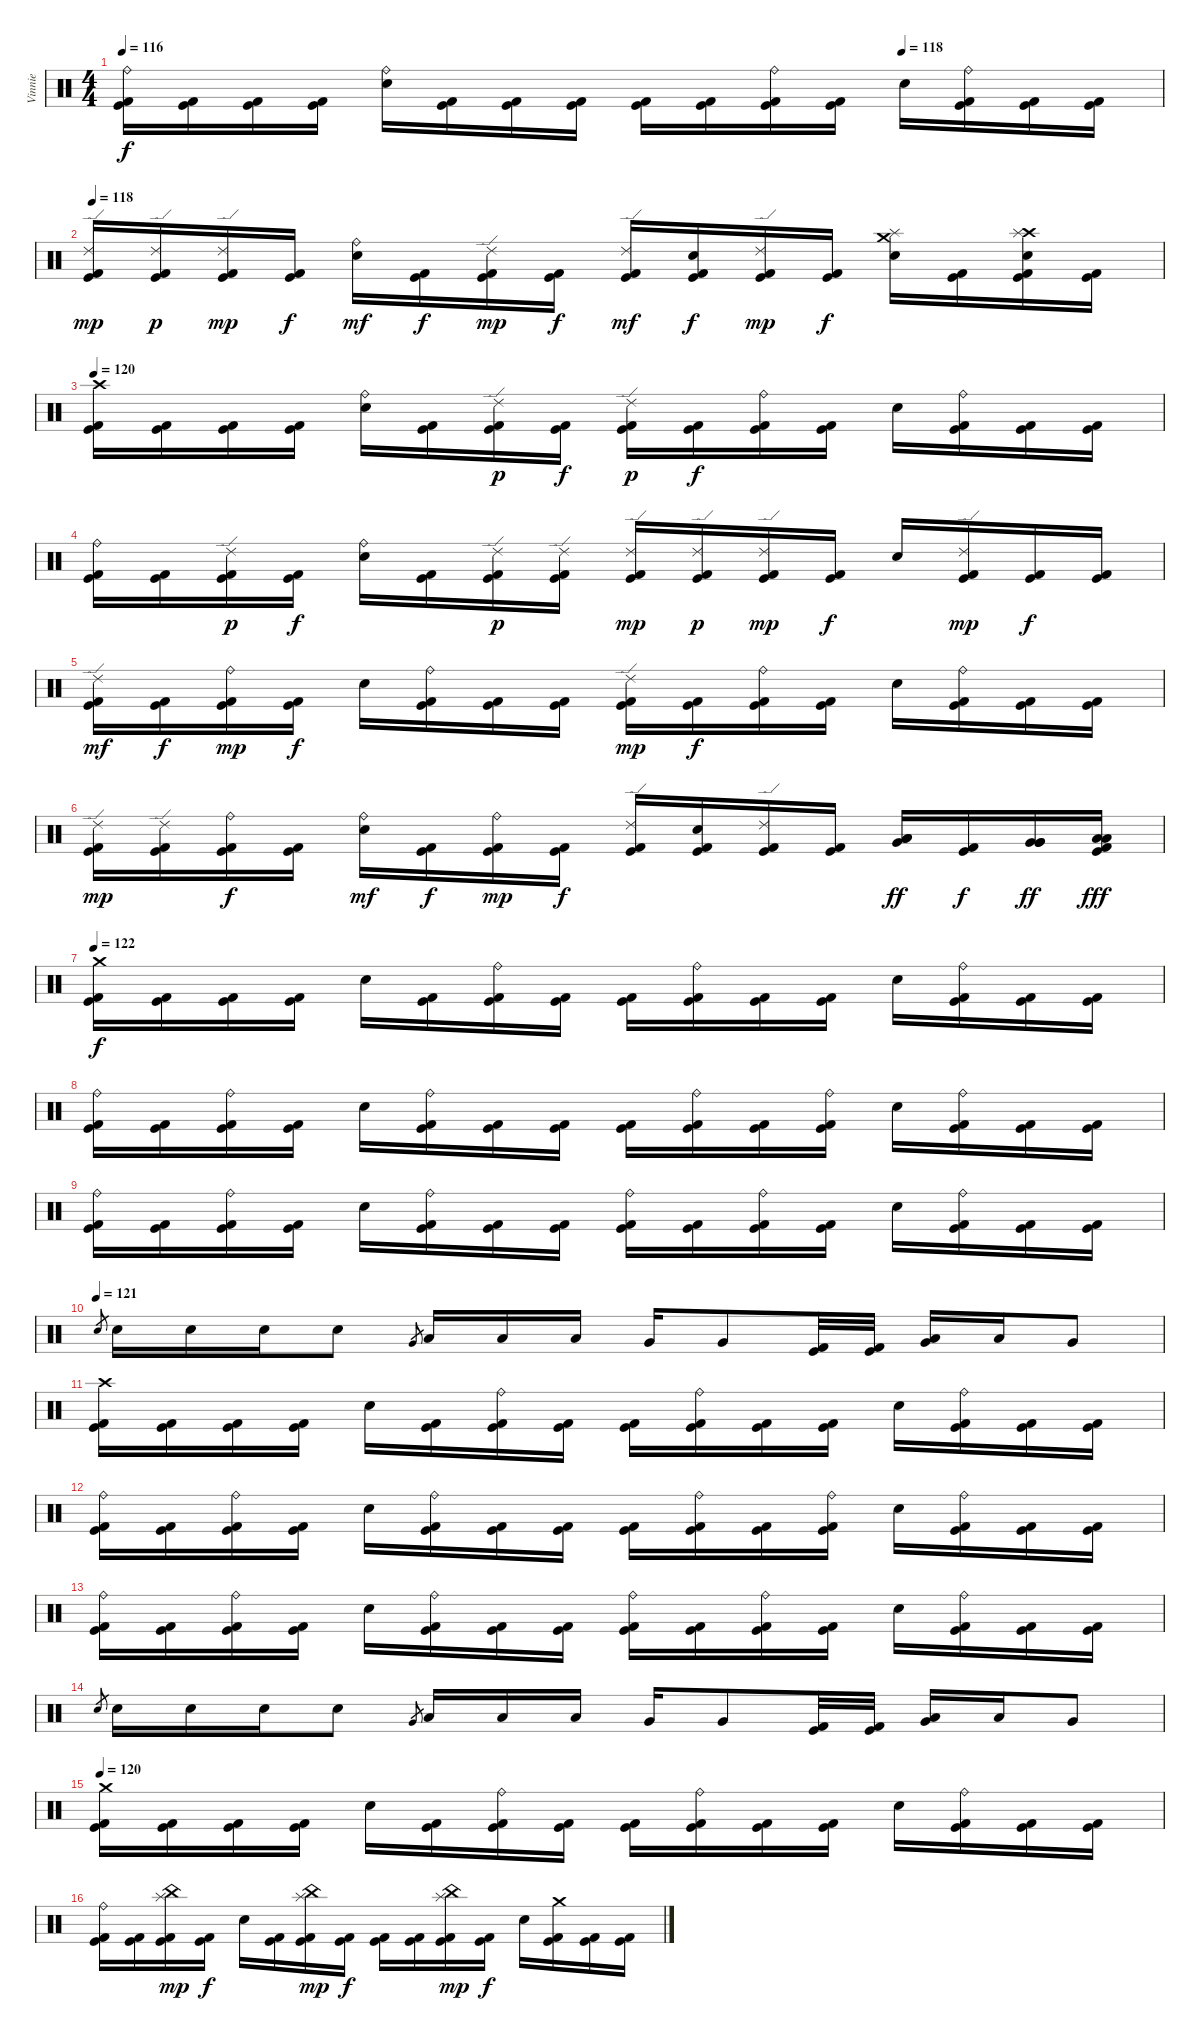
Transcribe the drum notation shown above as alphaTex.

\track ("Vinnie" "Vinnie") {instrument percussion}
\staff {score}
\articulation defaults
\ts (4 4)
\tempo 116
\tempo (118 0.75)
\clef neutral
\ks c
("Ride (bell)" "Kick (hit)" "Kick (hit) 2").16{dy f} ("Kick (hit)" "Kick (hit) 2").16 ("Kick (hit)" "Kick (hit) 2").16 ("Kick (hit)" "Kick (hit) 2").16 ("Ride (bell)" "Electric Snare (hit)").16 ("Kick (hit)" "Kick (hit) 2").16 ("Kick (hit)" "Kick (hit) 2").16 ("Kick (hit)" "Kick (hit) 2").16 ("Kick (hit)" "Kick (hit) 2").16 ("Kick (hit)" "Kick (hit) 2").16 ("Ride (bell)" "Kick (hit)" "Kick (hit) 2").16 ("Kick (hit)" "Kick (hit) 2").16 "Electric Snare (hit)".16 ("Ride (bell)" "Kick (hit)" "Kick (hit) 2").16 ("Kick (hit)" "Kick (hit) 2").16 ("Kick (hit)" "Kick (hit) 2").16 |
\tempo 118
("Ride (edge) 2" "Kick (hit)" "Kick (hit) 2").16{dy mp} ("Ride (edge) 2" "Kick (hit)" "Kick (hit) 2").16{dy p} ("Ride (edge) 2" "Kick (hit)" "Kick (hit) 2").16{dy mp} ("Kick (hit)" "Kick (hit) 2").16{dy f} ("Ride (bell)" "Electric Snare (hit)").16{dy mf} ("Kick (hit)" "Kick (hit) 2").16{dy f} ("Ride (edge) 2" "Kick (hit)" "Kick (hit) 2").16{dy mp} ("Kick (hit)" "Kick (hit) 2").16{dy f} ("Ride (edge) 2" "Kick (hit)" "Kick (hit) 2").16{dy mf} ("Electric Snare (hit)" "Kick (hit)" "Kick (hit) 2").16{dy f} ("Ride (edge) 2" "Kick (hit)" "Kick (hit) 2").16{dy mp} ("Kick (hit)" "Kick (hit) 2").16{dy f} ("Crash medium (hit)" "Splash (hit)" "Electric Snare (hit)").16 ("Kick (hit)" "Kick (hit) 2").16 ("Crash high (hit)" "Splash (hit)" "Electric Snare (hit)" "Kick (hit)" "Kick (hit) 2").16 ("Kick (hit)" "Kick (hit) 2").16 |
\tempo 120
("Crash high (hit)" "Kick (hit)" "Kick (hit) 2").16 ("Kick (hit)" "Kick (hit) 2").16 ("Kick (hit)" "Kick (hit) 2").16 ("Kick (hit)" "Kick (hit) 2").16 ("Ride (bell)" "Electric Snare (hit)").16 ("Kick (hit)" "Kick (hit) 2").16 ("Ride (edge) 2" "Kick (hit)" "Kick (hit) 2").16{dy p} ("Kick (hit)" "Kick (hit) 2").16{dy f} ("Ride (edge) 2" "Kick (hit)" "Kick (hit) 2").16{dy p} ("Kick (hit)" "Kick (hit) 2").16{dy f} ("Ride (bell)" "Kick (hit)" "Kick (hit) 2").16 ("Kick (hit)" "Kick (hit) 2").16 "Electric Snare (hit)".16 ("Ride (bell)" "Kick (hit)" "Kick (hit) 2").16 ("Kick (hit)" "Kick (hit) 2").16 ("Kick (hit)" "Kick (hit) 2").16 |
("Ride (bell)" "Kick (hit)" "Kick (hit) 2").16 ("Kick (hit)" "Kick (hit) 2").16 ("Ride (edge) 2" "Kick (hit)" "Kick (hit) 2").16{dy p} ("Kick (hit)" "Kick (hit) 2").16{dy f} ("Ride (bell)" "Electric Snare (hit)").16 ("Kick (hit)" "Kick (hit) 2").16 ("Ride (edge) 2" "Kick (hit)" "Kick (hit) 2").16{dy p} ("Ride (edge) 2" "Kick (hit)" "Kick (hit) 2").16 ("Ride (edge) 2" "Kick (hit)" "Kick (hit) 2").16{dy mp} ("Ride (edge) 2" "Kick (hit)" "Kick (hit) 2").16{dy p} ("Ride (edge) 2" "Kick (hit)" "Kick (hit) 2").16{dy mp} ("Kick (hit)" "Kick (hit) 2").16{dy f} "Electric Snare (hit)".16 ("Ride (edge) 2" "Kick (hit)" "Kick (hit) 2").16{dy mp} ("Kick (hit)" "Kick (hit) 2").16{dy f} ("Kick (hit)" "Kick (hit) 2").16 |
("Ride (edge) 2" "Kick (hit)" "Kick (hit) 2").16{dy mf} ("Kick (hit)" "Kick (hit) 2").16{dy f} ("Ride (bell)" "Kick (hit)" "Kick (hit) 2").16{dy mp} ("Kick (hit)" "Kick (hit) 2").16{dy f} "Electric Snare (hit)".16 ("Ride (bell)" "Kick (hit)" "Kick (hit) 2").16 ("Kick (hit)" "Kick (hit) 2").16 ("Kick (hit)" "Kick (hit) 2").16 ("Ride (edge) 2" "Kick (hit)" "Kick (hit) 2").16{dy mp} ("Kick (hit)" "Kick (hit) 2").16{dy f} ("Ride (bell)" "Kick (hit)" "Kick (hit) 2").16 ("Kick (hit)" "Kick (hit) 2").16 "Electric Snare (hit)".16 ("Ride (bell)" "Kick (hit)" "Kick (hit) 2").16 ("Kick (hit)" "Kick (hit) 2").16 ("Kick (hit)" "Kick (hit) 2").16 |
("Ride (edge) 2" "Kick (hit)" "Kick (hit) 2").16{dy mp} ("Ride (edge) 2" "Kick (hit)" "Kick (hit) 2").16 ("Ride (bell)" "Kick (hit)" "Kick (hit) 2").16{dy f} ("Kick (hit)" "Kick (hit) 2").16 ("Ride (bell)" "Electric Snare (hit)").16{dy mf} ("Kick (hit)" "Kick (hit) 2").16{dy f} ("Ride (bell)" "Kick (hit)" "Kick (hit) 2").16{dy mp} ("Kick (hit)" "Kick (hit) 2").16{dy f} ("Ride (edge) 2" "Kick (hit)" "Kick (hit) 2").16 ("Electric Snare (hit)" "Kick (hit)" "Kick (hit) 2").16 ("Ride (edge) 2" "Kick (hit)" "Kick (hit) 2").16 ("Kick (hit)" "Kick (hit) 2").16 ("Low Tom (hit)" "Low Tom (hit)" "Very Low Tom (hit)").16{bd 480 dy ff} ("Kick (hit)" "Kick (hit) 2").16{dy f} ("Very Low Tom (hit)" "Very Low Tom (hit)" "Very Low Tom (hit)").16{bd 480 dy ff} ("Low Tom (hit)" "Low Tom (hit)" "Kick (hit)" "Kick (hit) 2").16{dy fff} |
\tempo 122
("Crash medium (hit)" "Kick (hit)" "Kick (hit) 2").16{dy f} ("Kick (hit)" "Kick (hit) 2").16 ("Kick (hit)" "Kick (hit) 2").16 ("Kick (hit)" "Kick (hit) 2").16 "Electric Snare (hit)".16 ("Kick (hit)" "Kick (hit) 2").16 ("Ride (bell)" "Kick (hit)" "Kick (hit) 2").16 ("Kick (hit)" "Kick (hit) 2").16 ("Kick (hit)" "Kick (hit) 2").16 ("Ride (bell)" "Kick (hit)" "Kick (hit) 2").16 ("Kick (hit)" "Kick (hit) 2").16 ("Kick (hit)" "Kick (hit) 2").16 "Electric Snare (hit)".16 ("Ride (bell)" "Kick (hit)" "Kick (hit) 2").16 ("Kick (hit)" "Kick (hit) 2").16 ("Kick (hit)" "Kick (hit) 2").16 |
("Ride (bell)" "Kick (hit)" "Kick (hit) 2").16 ("Kick (hit)" "Kick (hit) 2").16 ("Ride (bell)" "Kick (hit)" "Kick (hit) 2").16 ("Kick (hit)" "Kick (hit) 2").16 "Electric Snare (hit)".16 ("Ride (bell)" "Kick (hit)" "Kick (hit) 2").16 ("Kick (hit)" "Kick (hit) 2").16 ("Kick (hit)" "Kick (hit) 2").16 ("Kick (hit)" "Kick (hit) 2").16 ("Ride (bell)" "Kick (hit)" "Kick (hit) 2").16 ("Kick (hit)" "Kick (hit) 2").16 ("Ride (bell)" "Kick (hit)" "Kick (hit) 2").16 "Electric Snare (hit)".16 ("Ride (bell)" "Kick (hit)" "Kick (hit) 2").16 ("Kick (hit)" "Kick (hit) 2").16 ("Kick (hit)" "Kick (hit) 2").16 |
("Ride (bell)" "Kick (hit)" "Kick (hit) 2").16 ("Kick (hit)" "Kick (hit) 2").16 ("Ride (bell)" "Kick (hit)" "Kick (hit) 2").16 ("Kick (hit)" "Kick (hit) 2").16 "Electric Snare (hit)".16 ("Ride (bell)" "Kick (hit)" "Kick (hit) 2").16 ("Kick (hit)" "Kick (hit) 2").16 ("Kick (hit)" "Kick (hit) 2").16 ("Ride (bell)" "Kick (hit)" "Kick (hit) 2").16 ("Kick (hit)" "Kick (hit) 2").16 ("Ride (bell)" "Kick (hit)" "Kick (hit) 2").16 ("Kick (hit)" "Kick (hit) 2").16 "Electric Snare (hit)".16 ("Ride (bell)" "Kick (hit)" "Kick (hit) 2").16 ("Kick (hit)" "Kick (hit) 2").16 ("Kick (hit)" "Kick (hit) 2").16 |
\tempo (121)
"Electric Snare (hit)".8{gr} "Electric Snare (hit)".16{bd 480} "Electric Snare (hit)".16 "Electric Snare (hit)".16 "Electric Snare (hit)".8 "Very Low Tom (hit)".8{gr} "Low Tom (hit)".16 "Low Tom (hit)".16 "Low Tom (hit)".16 "Very Low Tom (hit)".16 "Very Low Tom (hit)".8 ("Kick (hit)" "Kick (hit) 2").32 ("Kick (hit)" "Kick (hit) 2").32 ("Low Tom (hit)" "Very Low Tom (hit)").16{bd 240} "Low Tom (hit)".16 "Very Low Tom (hit)".8 |
("Crash high (hit)" "Kick (hit)" "Kick (hit) 2").16 ("Kick (hit)" "Kick (hit) 2").16 ("Kick (hit)" "Kick (hit) 2").16 ("Kick (hit)" "Kick (hit) 2").16 "Electric Snare (hit)".16 ("Kick (hit)" "Kick (hit) 2").16 ("Ride (bell)" "Kick (hit)" "Kick (hit) 2").16 ("Kick (hit)" "Kick (hit) 2").16 ("Kick (hit)" "Kick (hit) 2").16 ("Ride (bell)" "Kick (hit)" "Kick (hit) 2").16 ("Kick (hit)" "Kick (hit) 2").16 ("Kick (hit)" "Kick (hit) 2").16 "Electric Snare (hit)".16 ("Ride (bell)" "Kick (hit)" "Kick (hit) 2").16 ("Kick (hit)" "Kick (hit) 2").16 ("Kick (hit)" "Kick (hit) 2").16 |
("Ride (bell)" "Kick (hit)" "Kick (hit) 2").16 ("Kick (hit)" "Kick (hit) 2").16 ("Ride (bell)" "Kick (hit)" "Kick (hit) 2").16 ("Kick (hit)" "Kick (hit) 2").16 "Electric Snare (hit)".16 ("Ride (bell)" "Kick (hit)" "Kick (hit) 2").16 ("Kick (hit)" "Kick (hit) 2").16 ("Kick (hit)" "Kick (hit) 2").16 ("Kick (hit)" "Kick (hit) 2").16 ("Ride (bell)" "Kick (hit)" "Kick (hit) 2").16 ("Kick (hit)" "Kick (hit) 2").16 ("Ride (bell)" "Kick (hit)" "Kick (hit) 2").16 "Electric Snare (hit)".16 ("Ride (bell)" "Kick (hit)" "Kick (hit) 2").16 ("Kick (hit)" "Kick (hit) 2").16 ("Kick (hit)" "Kick (hit) 2").16 |
("Ride (bell)" "Kick (hit)" "Kick (hit) 2").16 ("Kick (hit)" "Kick (hit) 2").16 ("Ride (bell)" "Kick (hit)" "Kick (hit) 2").16 ("Kick (hit)" "Kick (hit) 2").16 "Electric Snare (hit)".16 ("Ride (bell)" "Kick (hit)" "Kick (hit) 2").16 ("Kick (hit)" "Kick (hit) 2").16 ("Kick (hit)" "Kick (hit) 2").16 ("Ride (bell)" "Kick (hit)" "Kick (hit) 2").16 ("Kick (hit)" "Kick (hit) 2").16 ("Ride (bell)" "Kick (hit)" "Kick (hit) 2").16 ("Kick (hit)" "Kick (hit) 2").16 "Electric Snare (hit)".16 ("Ride (bell)" "Kick (hit)" "Kick (hit) 2").16 ("Kick (hit)" "Kick (hit) 2").16 ("Kick (hit)" "Kick (hit) 2").16 |
"Electric Snare (hit)".8{gr} "Electric Snare (hit)".16{bd 480} "Electric Snare (hit)".16 "Electric Snare (hit)".16 "Electric Snare (hit)".8 "Very Low Tom (hit)".8{gr} "Low Tom (hit)".16 "Low Tom (hit)".16 "Low Tom (hit)".16 "Very Low Tom (hit)".16 "Very Low Tom (hit)".8 ("Kick (hit)" "Kick (hit) 2").32 ("Kick (hit)" "Kick (hit) 2").32 ("Low Tom (hit)" "Very Low Tom (hit)").16{bd 240} "Low Tom (hit)".16 "Very Low Tom (hit)".8 |
\tempo 120
("Crash medium (hit)" "Kick (hit)" "Kick (hit) 2").16 ("Kick (hit)" "Kick (hit) 2").16 ("Kick (hit)" "Kick (hit) 2").16 ("Kick (hit)" "Kick (hit) 2").16 "Electric Snare (hit)".16 ("Kick (hit)" "Kick (hit) 2").16 ("Ride (bell)" "Kick (hit)" "Kick (hit) 2").16 ("Kick (hit)" "Kick (hit) 2").16 ("Kick (hit)" "Kick (hit) 2").16 ("Ride (bell)" "Kick (hit)" "Kick (hit) 2").16 ("Kick (hit)" "Kick (hit) 2").16 ("Kick (hit)" "Kick (hit) 2").16 "Electric Snare (hit)".16 ("Ride (bell)" "Kick (hit)" "Kick (hit) 2").16 ("Kick (hit)" "Kick (hit) 2").16 ("Kick (hit)" "Kick (hit) 2").16 |
("Ride (bell)" "Kick (hit)" "Kick (hit) 2").16 ("Kick (hit)" "Kick (hit) 2").16 ("Splash (hit)" "China (hit)" "Kick (hit)" "Kick (hit) 2").16{dy mp} ("Kick (hit)" "Kick (hit) 2").16{dy f} "Electric Snare (hit)".16 ("Kick (hit)" "Kick (hit) 2").16 ("Splash (hit)" "China (hit)" "Kick (hit)" "Kick (hit) 2").16{dy mp} ("Kick (hit)" "Kick (hit) 2").16{dy f} ("Kick (hit)" "Kick (hit) 2").16 ("Kick (hit)" "Kick (hit) 2").16 ("Splash (hit)" "China (hit)" "Kick (hit)" "Kick (hit) 2").16{dy mp} ("Kick (hit)" "Kick (hit) 2").16{dy f} "Electric Snare (hit)".16 ("Crash medium (hit)" "Kick (hit)" "Kick (hit) 2").16 ("Kick (hit)" "Kick (hit) 2").16 ("Kick (hit)" "Kick (hit) 2").16
